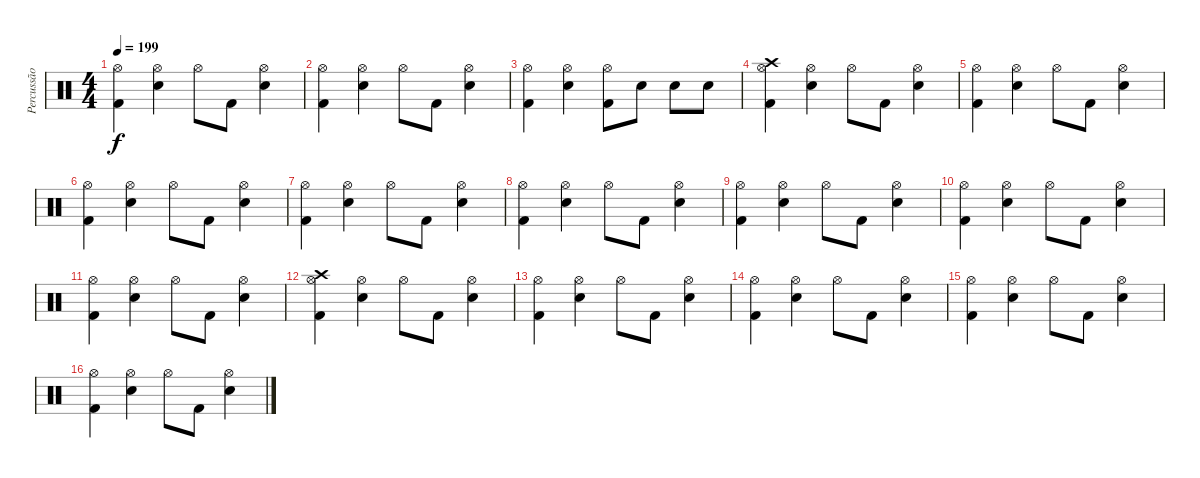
\track ("Percussão" "Percussão") {instrument percussion}
\staff {score}
\articulation defaults
\ts (4 4)
\tempo 199
\clef neutral
\ks c
("Hi-Hat (open)" "Kick (hit) 2").4{dy f} ("Hi-Hat (open)" "Electric Snare (hit)").4 "Hi-Hat (open)".8 "Kick (hit) 2".8 ("Hi-Hat (open)" "Electric Snare (hit)").4 |
("Hi-Hat (open)" "Kick (hit) 2").4 ("Hi-Hat (open)" "Electric Snare (hit)").4 "Hi-Hat (open)".8 "Kick (hit) 2".8 ("Hi-Hat (open)" "Electric Snare (hit)").4 |
("Hi-Hat (open)" "Kick (hit) 2").4 ("Hi-Hat (open)" "Electric Snare (hit)").4 ("Hi-Hat (open)" "Kick (hit) 2").8 "Electric Snare (hit)".8 "Electric Snare (hit)".8 "Electric Snare (hit)".8 |
("Hi-Hat (open)" "Crash high (hit)" "Kick (hit) 2").4 ("Hi-Hat (open)" "Electric Snare (hit)").4 "Hi-Hat (open)".8 "Kick (hit) 2".8 ("Hi-Hat (open)" "Electric Snare (hit)").4 |
("Hi-Hat (open)" "Kick (hit) 2").4 ("Hi-Hat (open)" "Electric Snare (hit)").4 "Hi-Hat (open)".8 "Kick (hit) 2".8 ("Hi-Hat (open)" "Electric Snare (hit)").4 |
("Hi-Hat (open)" "Kick (hit) 2").4 ("Hi-Hat (open)" "Electric Snare (hit)").4 "Hi-Hat (open)".8 "Kick (hit) 2".8 ("Hi-Hat (open)" "Electric Snare (hit)").4 |
("Hi-Hat (open)" "Kick (hit) 2").4 ("Hi-Hat (open)" "Electric Snare (hit)").4 "Hi-Hat (open)".8 "Kick (hit) 2".8 ("Hi-Hat (open)" "Electric Snare (hit)").4 |
("Hi-Hat (open)" "Kick (hit) 2").4 ("Hi-Hat (open)" "Electric Snare (hit)").4 "Hi-Hat (open)".8 "Kick (hit) 2".8 ("Hi-Hat (open)" "Electric Snare (hit)").4 |
("Hi-Hat (open)" "Kick (hit) 2").4 ("Hi-Hat (open)" "Electric Snare (hit)").4 "Hi-Hat (open)".8 "Kick (hit) 2".8 ("Hi-Hat (open)" "Electric Snare (hit)").4 |
("Hi-Hat (open)" "Kick (hit) 2").4 ("Hi-Hat (open)" "Electric Snare (hit)").4 "Hi-Hat (open)".8 "Kick (hit) 2".8 ("Hi-Hat (open)" "Electric Snare (hit)").4 |
("Hi-Hat (open)" "Kick (hit) 2").4 ("Hi-Hat (open)" "Electric Snare (hit)").4 "Hi-Hat (open)".8 "Kick (hit) 2".8 ("Hi-Hat (open)" "Electric Snare (hit)").4 |
("Hi-Hat (open)" "Crash high (hit)" "Kick (hit) 2").4 ("Hi-Hat (open)" "Electric Snare (hit)").4 "Hi-Hat (open)".8 "Kick (hit) 2".8 ("Hi-Hat (open)" "Electric Snare (hit)").4 |
("Hi-Hat (open)" "Kick (hit) 2").4 ("Hi-Hat (open)" "Electric Snare (hit)").4 "Hi-Hat (open)".8 "Kick (hit) 2".8 ("Hi-Hat (open)" "Electric Snare (hit)").4 |
("Hi-Hat (open)" "Kick (hit) 2").4 ("Hi-Hat (open)" "Electric Snare (hit)").4 "Hi-Hat (open)".8 "Kick (hit) 2".8 ("Hi-Hat (open)" "Electric Snare (hit)").4 |
("Hi-Hat (open)" "Kick (hit) 2").4 ("Hi-Hat (open)" "Electric Snare (hit)").4 "Hi-Hat (open)".8 "Kick (hit) 2".8 ("Hi-Hat (open)" "Electric Snare (hit)").4 |
("Hi-Hat (open)" "Kick (hit) 2").4 ("Hi-Hat (open)" "Electric Snare (hit)").4 "Hi-Hat (open)".8 "Kick (hit) 2".8 ("Hi-Hat (open)" "Electric Snare (hit)").4
